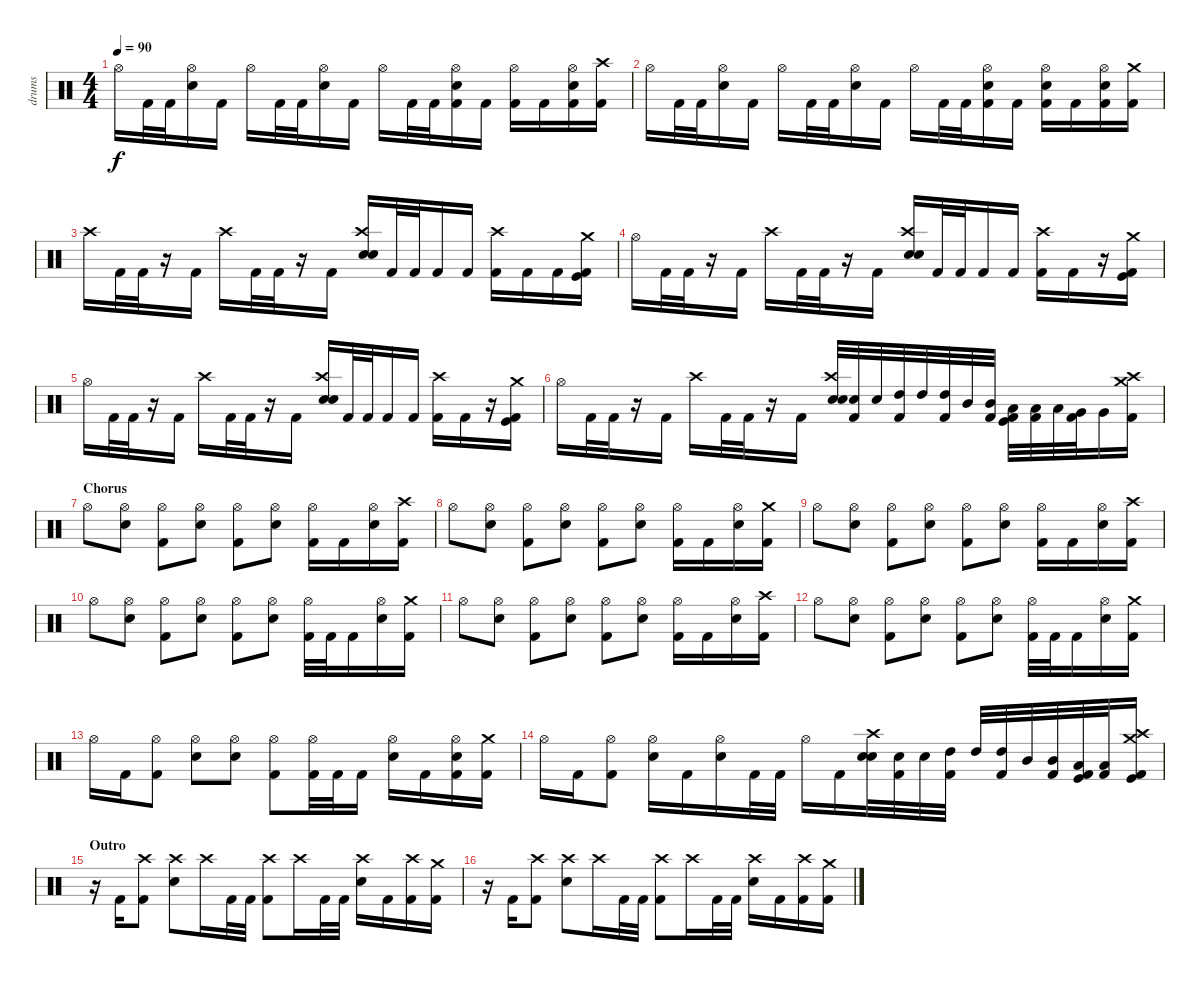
\track ("drums" "drums") {instrument percussion}
\staff {score}
\articulation defaults
\ts (4 4)
\tempo 90
\clef neutral
\ks c "Hi-Hat (open)".16{dy f} "Kick (hit) 2".32 "Kick (hit) 2".32
("Hi-Hat (open)" "Electric Snare (hit)").16 "Kick (hit) 2".16 "Hi-Hat (open)".16 "Kick (hit) 2".32 "Kick (hit) 2".32 ("Hi-Hat (open)" "Electric Snare (hit)").16 "Kick (hit) 2".16 "Hi-Hat (open)".16 "Kick (hit) 2".32 "Kick (hit) 2".32 ("Hi-Hat (open)" "Electric Snare (hit)" "Kick (hit) 2").16 "Kick (hit) 2".16 ("Hi-Hat (open)" "Kick (hit) 2").16 "Kick (hit) 2".16 ("Hi-Hat (open)" "Electric Snare (hit)" "Kick (hit) 2").16 ("Crash high (hit)" "Kick (hit) 2").16 |
"Hi-Hat (open)".16 "Kick (hit) 2".32 "Kick (hit) 2".32 ("Hi-Hat (open)" "Electric Snare (hit)").16 "Kick (hit) 2".16 "Hi-Hat (open)".16 "Kick (hit) 2".32 "Kick (hit) 2".32 ("Hi-Hat (open)" "Electric Snare (hit)").16 "Kick (hit) 2".16 "Hi-Hat (open)".16 "Kick (hit) 2".32 "Kick (hit) 2".32 ("Hi-Hat (open)" "Electric Snare (hit)" "Kick (hit) 2").16 "Kick (hit) 2".16 ("Hi-Hat (open)" "Electric Snare (hit)" "Kick (hit) 2").16 "Kick (hit) 2".16 ("Hi-Hat (open)" "Electric Snare (hit)" "Kick (hit) 2").16 ("Crash medium (hit)" "Kick (hit) 2").16 |
"Crash high (hit)".16 "Kick (hit) 2".32 "Kick (hit) 2".32 r.16 "Kick (hit) 2".16 "Crash high (hit)".16 "Kick (hit) 2".32 "Kick (hit) 2".32 r.16 "Kick (hit) 2".16 ("Crash high (hit)" "Electric Snare (hit)" "Snare (hit) 2").16 "Kick (hit) 2".32 "Kick (hit) 2".32 "Kick (hit) 2".16 "Kick (hit) 2".16 ("Crash high (hit)" "Kick (hit) 2").16 "Kick (hit) 2".16 "Kick (hit) 2".16 ("Crash medium (hit)" "Kick (hit)" "Kick (hit) 2").16 |
"Hi-Hat (open)".16 "Kick (hit) 2".32 "Kick (hit) 2".32 r.16 "Kick (hit) 2".16 "Crash high (hit)".16 "Kick (hit) 2".32 "Kick (hit) 2".32 r.16 "Kick (hit) 2".16 ("Crash high (hit)" "Electric Snare (hit)" "Snare (hit) 2").16 "Kick (hit) 2".32 "Kick (hit) 2".32 "Kick (hit) 2".16 "Kick (hit) 2".16 ("Crash high (hit)" "Kick (hit) 2").16 "Kick (hit) 2".16 r.16 ("Crash medium (hit)" "Kick (hit)" "Kick (hit) 2").16 |
"Hi-Hat (open)".16 "Kick (hit) 2".32 "Kick (hit) 2".32 r.16 "Kick (hit) 2".16 "Crash high (hit)".16 "Kick (hit) 2".32 "Kick (hit) 2".32 r.16 "Kick (hit) 2".16 ("Crash high (hit)" "Electric Snare (hit)" "Snare (hit) 2").16 "Kick (hit) 2".32 "Kick (hit) 2".32 "Kick (hit) 2".16 "Kick (hit) 2".16 ("Crash high (hit)" "Kick (hit) 2").16 "Kick (hit) 2".16 r.16 ("Crash medium (hit)" "Kick (hit)" "Kick (hit) 2").16 |
"Hi-Hat (open)".16 "Kick (hit) 2".32 "Kick (hit) 2".32 r.16 "Kick (hit) 2".16 "Crash high (hit)".16 "Kick (hit) 2".32 "Kick (hit) 2".32 r.16 "Kick (hit) 2".16 ("Crash high (hit)" "Electric Snare (hit)" "Snare (hit) 2").32 ("Electric Snare (hit)" "Kick (hit) 2").32 "Electric Snare (hit)".32 ("High Tom (hit)" "Kick (hit) 2").32 "High Tom (hit)".32 ("High Tom (hit)" "Kick (hit) 2").32 "Mid Tom (hit)".32 ("Mid Tom (hit)" "Kick (hit) 2").32 ("Low Tom (hit)" "Kick (hit)" "Kick (hit) 2").32 ("Low Tom (hit)" "Kick (hit) 2").32 "Low Tom (hit)".32 ("Very Low Tom (hit)" "Kick (hit) 2").32 "Very Low Tom (hit)".16 ("Crash medium (hit)" "Crash high (hit)" "Kick (hit) 2").16 |
\section ("" "Chorus")
"Hi-Hat (open)".8 ("Hi-Hat (open)" "Electric Snare (hit)").8 ("Hi-Hat (open)" "Kick (hit) 2").8 ("Hi-Hat (open)" "Electric Snare (hit)").8 ("Hi-Hat (open)" "Kick (hit) 2").8 ("Hi-Hat (open)" "Electric Snare (hit)").8 ("Hi-Hat (open)" "Kick (hit) 2").16 "Kick (hit) 2".16 ("Hi-Hat (open)" "Electric Snare (hit)").16 ("Crash high (hit)" "Kick (hit) 2").16 |
"Hi-Hat (open)".8 ("Hi-Hat (open)" "Electric Snare (hit)").8 ("Hi-Hat (open)" "Kick (hit) 2").8 ("Hi-Hat (open)" "Electric Snare (hit)").8 ("Hi-Hat (open)" "Kick (hit) 2").8 ("Hi-Hat (open)" "Electric Snare (hit)").8 ("Hi-Hat (open)" "Kick (hit) 2").16 "Kick (hit) 2".16 ("Hi-Hat (open)" "Electric Snare (hit)").16 ("Crash medium (hit)" "Kick (hit) 2").16 |
"Hi-Hat (open)".8 ("Hi-Hat (open)" "Electric Snare (hit)").8 ("Hi-Hat (open)" "Kick (hit) 2").8 ("Hi-Hat (open)" "Electric Snare (hit)").8 ("Hi-Hat (open)" "Kick (hit) 2").8 ("Hi-Hat (open)" "Electric Snare (hit)").8 ("Hi-Hat (open)" "Kick (hit) 2").16 "Kick (hit) 2".16 ("Hi-Hat (open)" "Electric Snare (hit)").16 ("Crash high (hit)" "Kick (hit) 2").16 |
"Hi-Hat (open)".8 ("Hi-Hat (open)" "Electric Snare (hit)").8 ("Hi-Hat (open)" "Kick (hit) 2").8 ("Hi-Hat (open)" "Electric Snare (hit)").8 ("Hi-Hat (open)" "Kick (hit) 2").8 ("Hi-Hat (open)" "Electric Snare (hit)").8 ("Hi-Hat (open)" "Kick (hit) 2").32 "Kick (hit) 2".32 "Kick (hit) 2".16 ("Hi-Hat (open)" "Electric Snare (hit)").16 ("Crash medium (hit)" "Kick (hit) 2").16 |
"Hi-Hat (open)".8 ("Hi-Hat (open)" "Electric Snare (hit)").8 ("Hi-Hat (open)" "Kick (hit) 2").8 ("Hi-Hat (open)" "Electric Snare (hit)").8 ("Hi-Hat (open)" "Kick (hit) 2").8 ("Hi-Hat (open)" "Electric Snare (hit)").8 ("Hi-Hat (open)" "Kick (hit) 2").16 "Kick (hit) 2".16 ("Hi-Hat (open)" "Electric Snare (hit)").16 ("Crash high (hit)" "Kick (hit) 2").16 |
"Hi-Hat (open)".8 ("Hi-Hat (open)" "Electric Snare (hit)").8 ("Hi-Hat (open)" "Kick (hit) 2").8 ("Hi-Hat (open)" "Electric Snare (hit)").8 ("Hi-Hat (open)" "Kick (hit) 2").8 ("Hi-Hat (open)" "Electric Snare (hit)").8 ("Hi-Hat (open)" "Kick (hit) 2").32 "Kick (hit) 2".32 "Kick (hit) 2".16 ("Hi-Hat (open)" "Electric Snare (hit)").16 ("Crash medium (hit)" "Kick (hit) 2").16 |
"Hi-Hat (open)".16 "Kick (hit) 2".16 ("Hi-Hat (open)" "Kick (hit) 2").8 ("Hi-Hat (open)" "Electric Snare (hit)").8 ("Hi-Hat (open)" "Electric Snare (hit)").8 ("Hi-Hat (open)" "Kick (hit) 2").8 ("Hi-Hat (open)" "Kick (hit) 2").32 "Kick (hit) 2".32 "Kick (hit) 2".16 ("Hi-Hat (open)" "Electric Snare (hit)").16 "Kick (hit) 2".16 ("Hi-Hat (open)" "Electric Snare (hit)" "Kick (hit) 2").16 ("Crash medium (hit)" "Kick (hit) 2").16 |
"Hi-Hat (open)".16 "Kick (hit) 2".16 ("Hi-Hat (open)" "Kick (hit) 2").8 ("Hi-Hat (open)" "Electric Snare (hit)").16 "Kick (hit) 2".16 ("Hi-Hat (open)" "Electric Snare (hit)").16 "Kick (hit) 2".32 "Kick (hit) 2".32 "Hi-Hat (open)".16 "Kick (hit) 2".16 ("Crash high (hit)" "Electric Snare (hit)" "Snare (hit) 2").32 ("Electric Snare (hit)" "Kick (hit) 2").32 "Electric Snare (hit)".32 ("High Tom (hit)" "Kick (hit) 2").32 "High Tom (hit)".32 ("High Tom (hit)" "Kick (hit) 2").32 "Mid Tom (hit)".32 ("Mid Tom (hit)" "Kick (hit) 2").32 ("Low Tom (hit)" "Kick (hit)" "Kick (hit) 2").32 ("Low Tom (hit)" "Kick (hit) 2").32 ("Crash medium (hit)" "Crash high (hit)" "Kick (hit)" "Kick (hit) 2").16 |
\section ("" "Outro")
r.16 "Kick (hit) 2".16 ("Crash high (hit)" "Kick (hit) 2").8 ("Crash high (hit)" "Electric Snare (hit)").8 "Crash high (hit)".16 "Kick (hit) 2".32 "Kick (hit) 2".32 ("Crash high (hit)" "Kick (hit) 2").8 "Crash high (hit)".16 "Kick (hit) 2".32 "Kick (hit) 2".32 ("Crash high (hit)" "Electric Snare (hit)").16 "Kick (hit) 2".16 ("Crash high (hit)" "Kick (hit) 2").16 ("Crash medium (hit)" "Kick (hit) 2").16 |
r.16 "Kick (hit) 2".16 ("Crash high (hit)" "Kick (hit) 2").8 ("Crash high (hit)" "Electric Snare (hit)").8 "Crash high (hit)".16 "Kick (hit) 2".32 "Kick (hit) 2".32 ("Crash high (hit)" "Kick (hit) 2").8 "Crash high (hit)".16 "Kick (hit) 2".32 "Kick (hit) 2".32 ("Crash high (hit)" "Electric Snare (hit)").16 "Kick (hit) 2".16 ("Crash high (hit)" "Kick (hit) 2").16 ("Crash medium (hit)" "Kick (hit) 2").16
